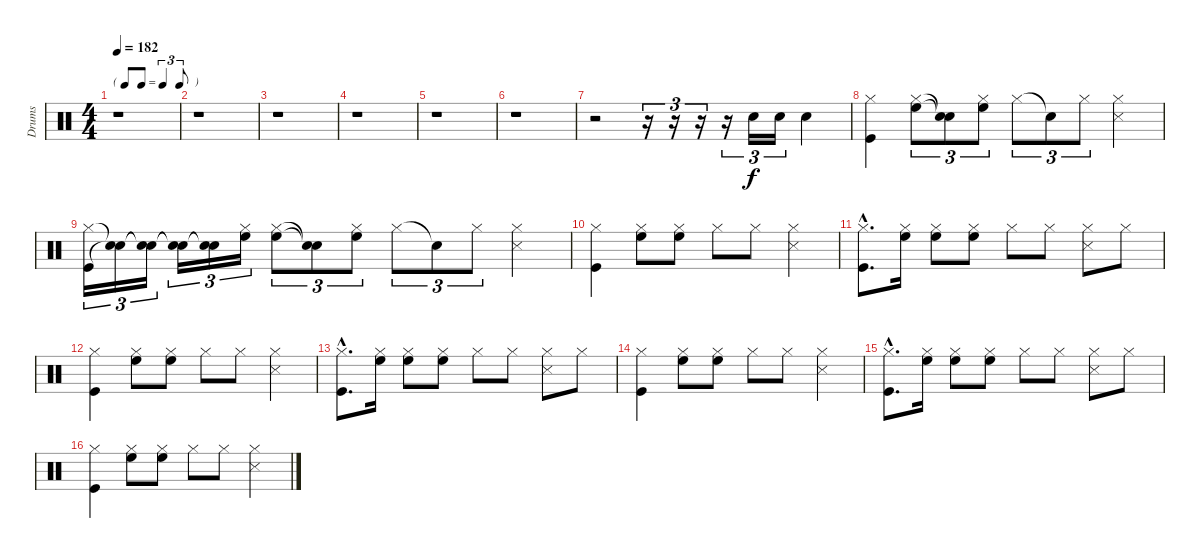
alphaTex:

\track ("Drums" "Drums") {instrument percussion}
\staff {score}
\articulation defaults
\ts (4 4)
\tf triplet8th
\tempo 182
\clef neutral
\ks c
r.1{dy f} |
r.1 |
r.1 |
r.1 |
r.1 |
r.1 |
r.2 r.16{tu (3 2)} r.16{tu (3 2)} r.16{tu (3 2)} r.16{tu (3 2)} "Snare (hit) 2".16{tu (3 2)} "Snare (hit) 2".16{tu (3 2)} "Snare (hit) 2".4 |
("Hi-Hat (closed)" "Kick (hit)").4 ("Hi-Hat (closed)" "High Floor Tom (hit)").8{tu (3 2)} ("Snare (hit)"{t} "Snare (hit)"{t}).8{tu (3 2)} ("Hi-Hat (closed)" "High Floor Tom (hit)").8{tu (3 2)} "Hi-Hat (closed)".8{tu (3 2)} "Snare (hit)"{t}.8{tu (3 2)} "Hi-Hat (closed)".8{tu (3 2)} ("Hi-Hat (closed)" "Snare (side stick) 3").4 |
("Hi-Hat (closed)" "Kick (hit)").16{tu (3 2)} ("Snare (hit)"{t} "Snare (hit)"{t}).16{tu (3 2)} ("Snare (hit)"{t} "Snare (hit)"{t}).16{tu (3 2)} ("Snare (hit)"{t} "Snare (hit)"{t}).16{tu (3 2)} ("Snare (hit)"{t} "Snare (hit)"{t}).16{tu (3 2)} ("Hi-Hat (closed)" "High Floor Tom (hit)").16{tu (3 2)} ("Hi-Hat (closed)" "High Floor Tom (hit)").8{tu (3 2)} ("Snare (hit)"{t} "Snare (hit)"{t}).8{tu (3 2)} ("Hi-Hat (closed)" "High Floor Tom (hit)").8{tu (3 2)} "Hi-Hat (closed)".8{tu (3 2)} "Snare (hit)"{t}.8{tu (3 2)} "Hi-Hat (closed)".8{tu (3 2)} ("Hi-Hat (closed)" "Snare (side stick) 3").4 |
("Hi-Hat (closed)" "Kick (hit)").4 ("Hi-Hat (closed)" "High Floor Tom (hit)").8 ("Hi-Hat (closed)" "High Floor Tom (hit)").8 "Hi-Hat (closed)".8 "Hi-Hat (closed)".8 ("Hi-Hat (closed)" "Snare (side stick) 3").4 |
("Hi-Hat (closed)"{hac} "Kick (hit)"{hac}).8{d} ("Hi-Hat (closed)" "High Floor Tom (hit)").16 ("Hi-Hat (closed)" "High Floor Tom (hit)").8 ("Hi-Hat (closed)" "High Floor Tom (hit)").8 "Hi-Hat (closed)".8 "Hi-Hat (closed)".8 ("Hi-Hat (closed)" "Snare (side stick) 3").8 "Hi-Hat (closed)".8 |
("Hi-Hat (closed)" "Kick (hit)").4 ("Hi-Hat (closed)" "High Floor Tom (hit)").8 ("Hi-Hat (closed)" "High Floor Tom (hit)").8 "Hi-Hat (closed)".8 "Hi-Hat (closed)".8 ("Hi-Hat (closed)" "Snare (side stick) 3").4 |
("Hi-Hat (closed)"{hac} "Kick (hit)"{hac}).8{d} ("Hi-Hat (closed)" "High Floor Tom (hit)").16 ("Hi-Hat (closed)" "High Floor Tom (hit)").8 ("Hi-Hat (closed)" "High Floor Tom (hit)").8 "Hi-Hat (closed)".8 "Hi-Hat (closed)".8 ("Hi-Hat (closed)" "Snare (side stick) 3").8 "Hi-Hat (closed)".8 |
("Hi-Hat (closed)" "Kick (hit)").4 ("Hi-Hat (closed)" "High Floor Tom (hit)").8 ("Hi-Hat (closed)" "High Floor Tom (hit)").8 "Hi-Hat (closed)".8 "Hi-Hat (closed)".8 ("Hi-Hat (closed)" "Snare (side stick) 3").4 |
("Hi-Hat (closed)"{hac} "Kick (hit)"{hac}).8{d} ("Hi-Hat (closed)" "High Floor Tom (hit)").16 ("Hi-Hat (closed)" "High Floor Tom (hit)").8 ("Hi-Hat (closed)" "High Floor Tom (hit)").8 "Hi-Hat (closed)".8 "Hi-Hat (closed)".8 ("Hi-Hat (closed)" "Snare (side stick) 3").8 "Hi-Hat (closed)".8 |
("Hi-Hat (closed)" "Kick (hit)").4 ("Hi-Hat (closed)" "High Floor Tom (hit)").8 ("Hi-Hat (closed)" "High Floor Tom (hit)").8 "Hi-Hat (closed)".8 "Hi-Hat (closed)".8 ("Hi-Hat (closed)" "Snare (side stick) 3").4
